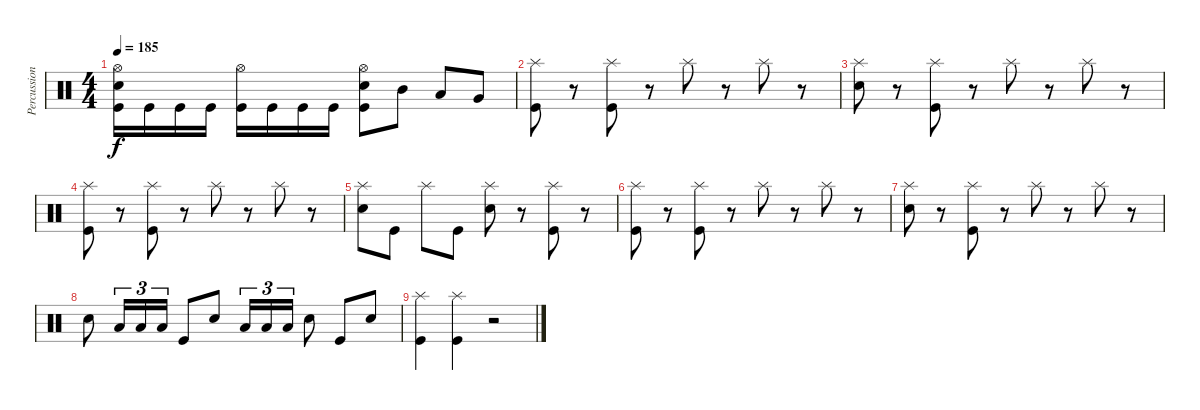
\track ("Percussions" "Percussion") {instrument percussion}
\staff {score}
\articulation defaults
\ts (4 4)
\tempo 185
\clef neutral
\ks c
("Kick (hit)" "Electric Snare (hit)" "Hi-Hat (open)").16{dy f} "Kick (hit)".16 "Kick (hit)".16 "Kick (hit)".16 ("Kick (hit)" "Hi-Hat (open)").16 "Kick (hit)".16 "Kick (hit)".16 "Kick (hit)".16 ("Kick (hit)" "Electric Snare (hit)" "Hi-Hat (open)").8 "Mid Tom (hit)".8 "Low Tom (hit)".8 "Very Low Tom (hit)".8 |
("Kick (hit)" "Splash (hit)").8 r.8 ("Kick (hit)" "Splash (hit)").8 r.8 "Splash (hit)".8 r.8 "Splash (hit)".8 r.8 |
("Electric Snare (hit)" "Splash (hit)").8 r.8 ("Kick (hit)" "Splash (hit)").8 r.8 "Splash (hit)".8 r.8 "Splash (hit)".8 r.8 |
("Kick (hit)" "Splash (hit)").8 r.8 ("Kick (hit)" "Splash (hit)").8 r.8 "Splash (hit)".8 r.8 "Splash (hit)".8 r.8 |
("Electric Snare (hit)" "Splash (hit)").8 "Kick (hit)".8 "Splash (hit)".8 "Kick (hit)".8 ("Electric Snare (hit)" "Splash (hit)").8 r.8 ("Kick (hit)" "Splash (hit)").8 r.8 |
("Kick (hit)" "Splash (hit)").8 r.8 ("Kick (hit)" "Splash (hit)").8 r.8 "Splash (hit)".8 r.8 "Splash (hit)".8 r.8 |
("Electric Snare (hit)" "Splash (hit)").8 r.8 ("Kick (hit)" "Splash (hit)").8 r.8 "Splash (hit)".8 r.8 "Splash (hit)".8 r.8 |
"Electric Snare (hit)".8 "Low Tom (hit)".16{tu (3 2)} "Low Tom (hit)".16{tu (3 2)} "Low Tom (hit)".16{tu (3 2)} "Kick (hit)".8 "Electric Snare (hit)".8 "Low Tom (hit)".16{tu (3 2)} "Low Tom (hit)".16{tu (3 2)} "Low Tom (hit)".16{tu (3 2)} "Electric Snare (hit)".8 "Kick (hit)".8 "Electric Snare (hit)".8 |
("Kick (hit)" "Splash (hit)").4 ("Kick (hit)" "Splash (hit)").4 r.2
